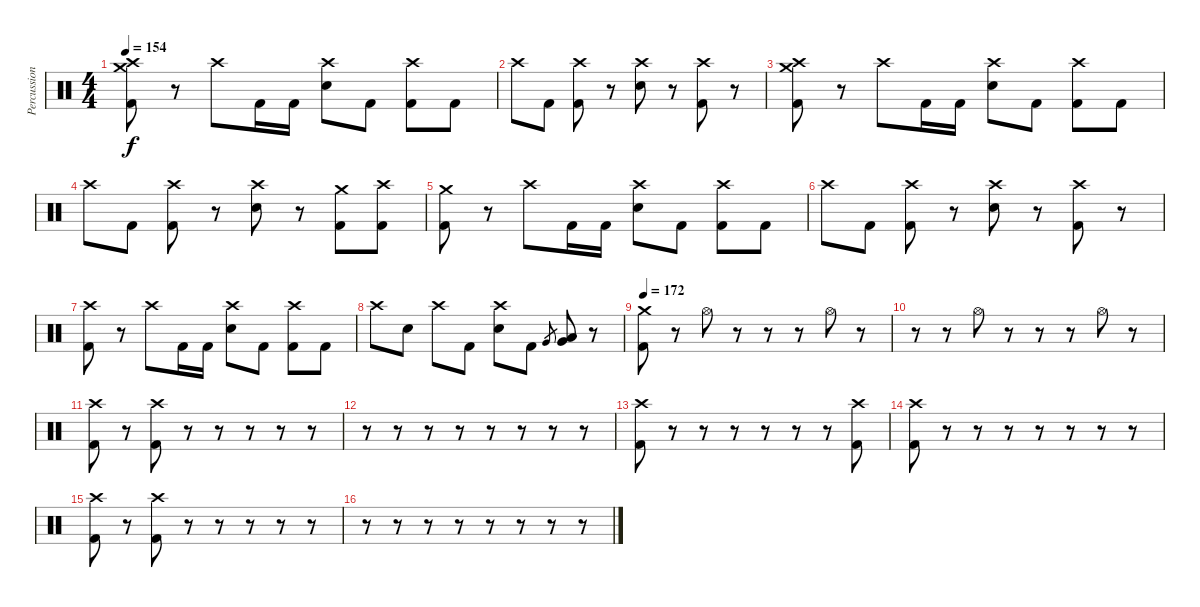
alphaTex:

\track ("Percussion" "Percussion") {instrument percussion}
\staff {score}
\articulation defaults
\ts (4 4)
\tempo 154
\clef neutral
\ks c
("Crash medium (hit)" "Crash high (hit)" "Kick (hit) 2").8{dy f} r.8 "Crash high (hit)".8 "Kick (hit) 2".16 "Kick (hit) 2".16 ("Crash high (hit)" "Snare (hit) 2").8 "Kick (hit) 2".8 ("Crash high (hit)" "Kick (hit) 2").8 "Kick (hit) 2".8 |
"Crash high (hit)".8 "Kick (hit) 2".8 ("Crash high (hit)" "Kick (hit) 2").8 r.8 ("Crash high (hit)" "Snare (hit) 2").8 r.8 ("Crash high (hit)" "Kick (hit) 2").8 r.8 |
("Crash high (hit)" "Crash medium (hit)" "Kick (hit) 2").8 r.8 "Crash high (hit)".8 "Kick (hit) 2".16 "Kick (hit) 2".16 ("Crash high (hit)" "Snare (hit) 2").8 "Kick (hit) 2".8 ("Crash high (hit)" "Kick (hit) 2").8 "Kick (hit) 2".8 |
"Crash high (hit)".8 "Kick (hit) 2".8 ("Crash high (hit)" "Kick (hit) 2").8 r.8 ("Crash high (hit)" "Snare (hit) 2").8 r.8 ("Crash medium (hit)" "Kick (hit) 2").8 ("Crash high (hit)" "Kick (hit) 2").8 |
("Crash medium (hit)" "Kick (hit) 2").8 r.8 "Crash high (hit)".8 "Kick (hit) 2".16 "Kick (hit) 2".16 ("Crash high (hit)" "Snare (hit) 2").8 "Kick (hit) 2".8 ("Crash high (hit)" "Kick (hit) 2").8 "Kick (hit) 2".8 |
"Crash high (hit)".8 "Kick (hit) 2".8 ("Crash high (hit)" "Kick (hit) 2").8 r.8 ("Crash high (hit)" "Snare (hit) 2").8 r.8 ("Crash high (hit)" "Kick (hit) 2").8 r.8 |
("Crash high (hit)" "Kick (hit) 2").8 r.8 "Crash high (hit)".8 "Kick (hit) 2".16 "Kick (hit) 2".16 ("Crash high (hit)" "Snare (hit) 2").8 "Kick (hit) 2".8 ("Crash high (hit)" "Kick (hit) 2").8 "Kick (hit) 2".8 |
"Crash high (hit)".8 "Snare (hit) 2".8 "Crash high (hit)".8 "Kick (hit) 2".8 ("Crash high (hit)" "Snare (hit) 2").8 "Kick (hit) 2".8 "Very Low Tom (hit)".8{gr} ("Low Floor Tom (hit)" "Very Low Tom (hit)").8 r.8 |
\tempo 172
("Crash medium (hit)" "Kick (hit) 2").8 r.8 "Hi-Hat (open)".8 r.8 r.8 r.8 "Hi-Hat (open)".8 r.8 |
r.8 r.8 "Hi-Hat (open)".8 r.8 r.8 r.8 "Hi-Hat (open)".8 r.8 |
("Crash high (hit)" "Kick (hit) 2").8 r.8 ("Crash high (hit)" "Kick (hit) 2").8 r.8 r.8 r.8 r.8 r.8 |
r.8 r.8 r.8 r.8 r.8 r.8 r.8 r.8 |
("Crash high (hit)" "Kick (hit) 2").8 r.8 r.8 r.8 r.8 r.8 r.8 ("Crash high (hit)" "Kick (hit) 2").8{volume 16} |
("Crash high (hit)" "Kick (hit) 2").8 r.8{volume 0} r.8 r.8 r.8 r.8 r.8 r.8 |
("Crash high (hit)" "Kick (hit) 2").8{volume 16} r.8 ("Crash high (hit)" "Kick (hit) 2").8 r.8 r.8 r.8 r.8 r.8 |
r.8 r.8 r.8 r.8 r.8 r.8 r.8 r.8
